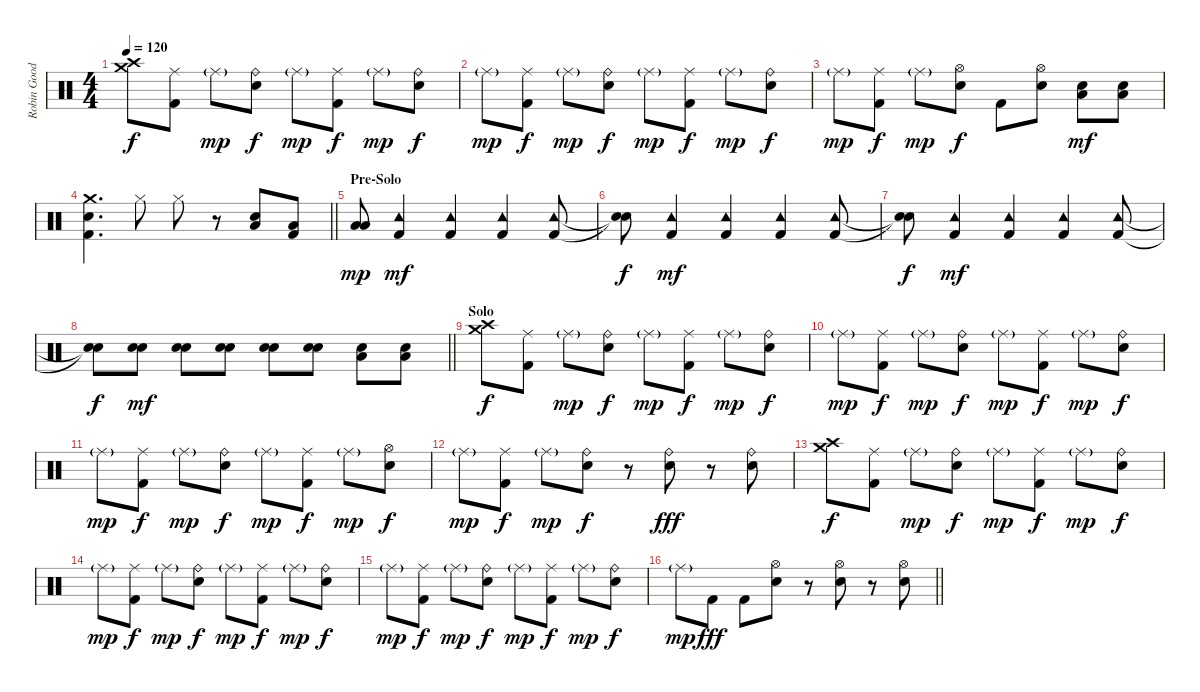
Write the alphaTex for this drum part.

\track ("Robin Goodridge: Drums" "Robin Good") {instrument percussion}
\staff {score}
\articulation defaults
\ts (4 4)
\tempo 120
\clef neutral
\ks c
("Crash high (hit)" "Crash medium (hit)").8{dy f} ("Ride (middle)" "Kick (hit) 2").8 "Ride (middle)"{g}.8{dy mp} ("Ride (bell)" "Electric Snare (hit)").8{dy f} "Ride (middle)"{g}.8{dy mp} ("Ride (middle)" "Kick (hit) 2").8{dy f} "Ride (middle)"{g}.8{dy mp} ("Ride (bell)" "Electric Snare (hit)").8{dy f} |
"Ride (middle)"{g}.8{dy mp} ("Ride (middle)" "Kick (hit) 2").8{dy f} "Ride (middle)"{g}.8{dy mp} ("Ride (bell)" "Electric Snare (hit)").8{dy f} "Ride (middle)"{g}.8{dy mp} ("Ride (middle)" "Kick (hit) 2").8{dy f} "Ride (middle)"{g}.8{dy mp} ("Ride (bell)" "Electric Snare (hit)").8{dy f} |
"Ride (middle)"{g}.8{dy mp} ("Ride (middle)" "Kick (hit) 2").8{dy f} "Ride (middle)"{g}.8{dy mp} ("Hi-Hat (open)" "Electric Snare (hit)").8{dy f} "Kick (hit) 2".8 ("Hi-Hat (open)" "Electric Snare (hit)").8 ("Electric Snare (hit)" "Low Tom (hit)").8{dy mf} ("Electric Snare (hit)" "Low Tom (hit)").8 |
\barLineRight lightlight
("Crash medium (hit)" "Electric Snare (hit)" "Kick (hit) 2").4{d} "Hi-Hat (closed)".8 "Hi-Hat (closed)".8 r.8 ("Electric Snare (hit)" "Low Floor Tom (hit)").8 ("Kick (hit) 2" "Low Floor Tom (hit)").8 |
\section ("" "Pre-Solo")
("Low Tom (hit)" "Low Floor Tom (hit)").8{dy mp} ("Tambourine (hit)" "Kick (hit) 2").4{dy mf} ("Tambourine (hit)" "Kick (hit) 2").4 ("Tambourine (hit)" "Kick (hit) 2").4 ("Tambourine (hit)" "Kick (hit) 2").8 |
("Snare (hit)"{t} "Snare (hit)"{t}).8{dy f} ("Tambourine (hit)" "Kick (hit) 2").4{dy mf} ("Tambourine (hit)" "Kick (hit) 2").4 ("Tambourine (hit)" "Kick (hit) 2").4 ("Tambourine (hit)" "Kick (hit) 2").8 |
("Snare (hit)"{t} "Snare (hit)"{t}).8{dy f} ("Tambourine (hit)" "Kick (hit) 2").4{dy mf} ("Tambourine (hit)" "Kick (hit) 2").4 ("Tambourine (hit)" "Kick (hit) 2").4 ("Tambourine (hit)" "Kick (hit) 2").8 |
\barLineRight lightlight
("Snare (hit)"{t} "Snare (hit)"{t}).8{dy f} ("Electric Snare (hit)" "Electric Snare (hit)").8{dy mf} ("Electric Snare (hit)" "Electric Snare (hit)").8 ("Electric Snare (hit)" "Electric Snare (hit)").8 ("Electric Snare (hit)" "Electric Snare (hit)").8 ("Electric Snare (hit)" "Electric Snare (hit)").8 ("Electric Snare (hit)" "Low Floor Tom (hit)").8 ("Electric Snare (hit)" "Low Floor Tom (hit)").8 |
\section ("" "Solo")
("Crash high (hit)" "Crash medium (hit)").8{dy f} ("Ride (middle)" "Kick (hit) 2").8 "Ride (middle)"{g}.8{dy mp} ("Ride (bell)" "Electric Snare (hit)").8{dy f} "Ride (middle)"{g}.8{dy mp} ("Ride (middle)" "Kick (hit) 2").8{dy f} "Ride (middle)"{g}.8{dy mp} ("Ride (bell)" "Electric Snare (hit)").8{dy f} |
"Ride (middle)"{g}.8{dy mp} ("Ride (middle)" "Kick (hit) 2").8{dy f} "Ride (middle)"{g}.8{dy mp} ("Ride (bell)" "Electric Snare (hit)").8{dy f} "Ride (middle)"{g}.8{dy mp} ("Ride (middle)" "Kick (hit) 2").8{dy f} "Ride (middle)"{g}.8{dy mp} ("Ride (bell)" "Electric Snare (hit)").8{dy f} |
"Ride (middle)"{g}.8{dy mp} ("Ride (middle)" "Kick (hit) 2").8{dy f} "Ride (middle)"{g}.8{dy mp} ("Ride (bell)" "Electric Snare (hit)").8{dy f} "Ride (middle)"{g}.8{dy mp} ("Ride (middle)" "Kick (hit) 2").8{dy f} "Ride (middle)"{g}.8{dy mp} ("Hi-Hat (open)" "Electric Snare (hit)").8{dy f} |
"Ride (middle)"{g}.8{dy mp} ("Ride (middle)" "Kick (hit) 2").8{dy f} "Ride (middle)"{g}.8{dy mp} ("Ride (bell)" "Electric Snare (hit)").8{dy f} r.8 ("Ride (bell)" "Electric Snare (hit)").8{dy fff} r.8 ("Ride (bell)" "Electric Snare (hit)").8 |
("Crash high (hit)" "Crash medium (hit)").8{dy f} ("Ride (middle)" "Kick (hit) 2").8 "Ride (middle)"{g}.8{dy mp} ("Ride (bell)" "Electric Snare (hit)").8{dy f} "Ride (middle)"{g}.8{dy mp} ("Ride (middle)" "Kick (hit) 2").8{dy f} "Ride (middle)"{g}.8{dy mp} ("Ride (bell)" "Electric Snare (hit)").8{dy f} |
"Ride (middle)"{g}.8{dy mp} ("Ride (middle)" "Kick (hit) 2").8{dy f} "Ride (middle)"{g}.8{dy mp} ("Ride (bell)" "Electric Snare (hit)").8{dy f} "Ride (middle)"{g}.8{dy mp} ("Ride (middle)" "Kick (hit) 2").8{dy f} "Ride (middle)"{g}.8{dy mp} ("Ride (bell)" "Electric Snare (hit)").8{dy f} |
"Ride (middle)"{g}.8{dy mp} ("Ride (middle)" "Kick (hit) 2").8{dy f} "Ride (middle)"{g}.8{dy mp} ("Ride (bell)" "Electric Snare (hit)").8{dy f} "Ride (middle)"{g}.8{dy mp} ("Ride (middle)" "Kick (hit) 2").8{dy f} "Ride (middle)"{g}.8{dy mp} ("Ride (bell)" "Electric Snare (hit)").8{dy f} |
\barLineRight lightlight "Ride (middle)"{g}.8{dy mp} "Kick (hit) 2".8{dy fff} "Kick (hit) 2".8
("Hi-Hat (open)" "Electric Snare (hit)").8 r.8 ("Hi-Hat (open)" "Electric Snare (hit)").8 r.8 ("Hi-Hat (open)" "Electric Snare (hit)").8
